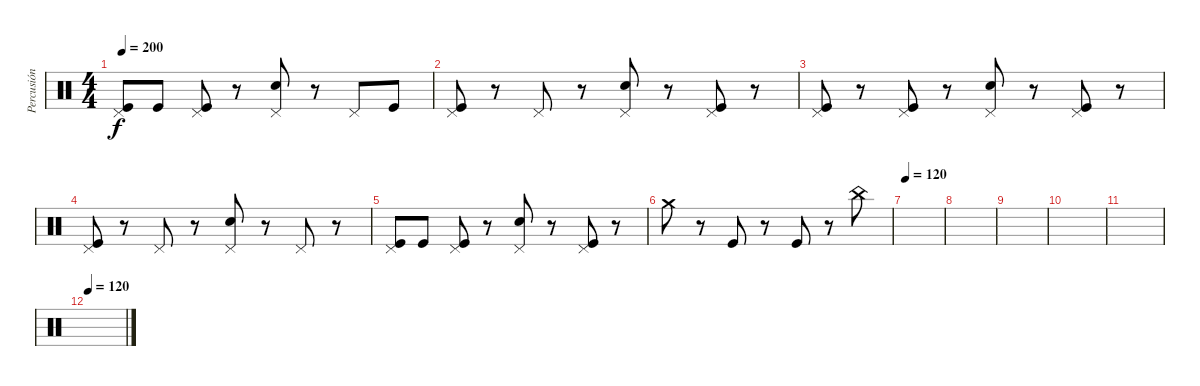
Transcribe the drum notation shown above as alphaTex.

\track ("Percusión" "Percusión") {instrument percussion}
\staff {score}
\articulation defaults
\ts (4 4)
\tempo 200
\clef neutral
\ks c
("Pedal Hi-Hat (hit)" "Kick (hit)").8{dy f} "Kick (hit)".8 ("Pedal Hi-Hat (hit)" "Kick (hit)").8 r.8 ("Pedal Hi-Hat (hit)" "Snare (hit) 2").8 r.8 "Pedal Hi-Hat (hit)".8 "Kick (hit)".8 |
("Pedal Hi-Hat (hit)" "Kick (hit)").8 r.8 "Pedal Hi-Hat (hit)".8 r.8 ("Pedal Hi-Hat (hit)" "Snare (hit) 2").8 r.8 ("Pedal Hi-Hat (hit)" "Kick (hit)").8 r.8 |
("Pedal Hi-Hat (hit)" "Kick (hit)").8 r.8 ("Pedal Hi-Hat (hit)" "Kick (hit)").8 r.8 ("Pedal Hi-Hat (hit)" "Snare (hit) 2").8 r.8 ("Pedal Hi-Hat (hit)" "Kick (hit)").8 r.8 |
("Pedal Hi-Hat (hit)" "Kick (hit)").8 r.8 "Pedal Hi-Hat (hit)".8 r.8 ("Pedal Hi-Hat (hit)" "Snare (hit) 2").8 r.8 "Pedal Hi-Hat (hit)".8 r.8 |
("Pedal Hi-Hat (hit)" "Kick (hit)").8 "Kick (hit)".8 ("Pedal Hi-Hat (hit)" "Kick (hit)").8 r.8 ("Pedal Hi-Hat (hit)" "Snare (hit) 2").8 r.8 ("Pedal Hi-Hat (hit)" "Kick (hit)").8 r.8 |
"Crash medium (hit)".8 r.8 "Kick (hit)".8 r.8 "Kick (hit)".8 r.8 "China (hit)".8 |
\tempo 120
|
|
|
|
|
\tempo 120
